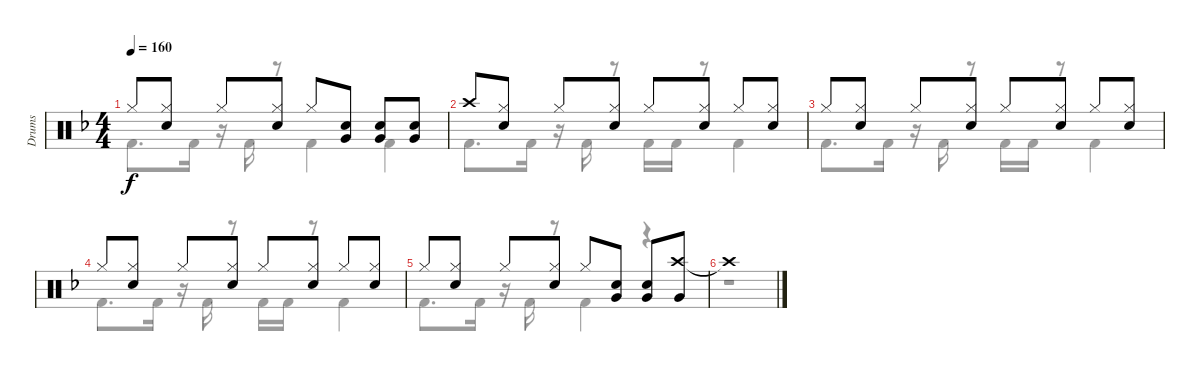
\track ("Drums" "Drums") {instrument percussion}
\staff {score}
\articulation defaults
\voice
\ts (4 4)
\tempo 160
\clef neutral
\ks f "Hi-Hat (closed)".8{dy f}
("Hi-Hat (closed)" "Snare (hit) 2").8 "Hi-Hat (closed)".8 ("Hi-Hat (closed)" "Snare (hit) 2").8 "Hi-Hat (closed)".8 ("Snare (hit) 2" "Very Low Tom (hit)").8 ("Snare (hit) 2" "Very Low Tom (hit)").8 ("Snare (hit) 2" "Very Low Tom (hit)").8 |
"Crash high (hit)".8 ("Hi-Hat (closed)" "Snare (hit) 2").8 "Hi-Hat (closed)".8 ("Hi-Hat (closed)" "Snare (hit) 2").8 "Hi-Hat (closed)".8 ("Hi-Hat (closed)" "Snare (hit) 2").8 "Hi-Hat (closed)".8 ("Hi-Hat (closed)" "Snare (hit) 2").8 |
"Hi-Hat (closed)".8 ("Hi-Hat (closed)" "Snare (hit) 2").8 "Hi-Hat (closed)".8 ("Hi-Hat (closed)" "Snare (hit) 2").8 "Hi-Hat (closed)".8 ("Hi-Hat (closed)" "Snare (hit) 2").8 "Hi-Hat (closed)".8 ("Hi-Hat (closed)" "Snare (hit) 2").8 |
"Hi-Hat (closed)".8 ("Hi-Hat (closed)" "Snare (hit) 2").8 "Hi-Hat (closed)".8 ("Hi-Hat (closed)" "Snare (hit) 2").8 "Hi-Hat (closed)".8 ("Hi-Hat (closed)" "Snare (hit) 2").8 "Hi-Hat (closed)".8 ("Hi-Hat (closed)" "Snare (hit) 2").8 |
"Hi-Hat (closed)".8 ("Hi-Hat (closed)" "Snare (hit) 2").8 "Hi-Hat (closed)".8 ("Hi-Hat (closed)" "Snare (hit) 2").8 "Hi-Hat (closed)".8 ("Snare (hit) 2" "Very Low Tom (hit)").8 ("Snare (hit) 2" "Very Low Tom (hit)").8 ("Crash high (hit)" "Very Low Tom (hit)").8 |
"Crash high (hit)"{t}.1
\voice
\clef neutral
\ottava regular
\simile none
\ks f "Kick (hit) 2".8{d dy f} "Kick (hit) 2".16
r.16 "Kick (hit) 2".16 r.8 "Kick (hit) 2".4 "Kick (hit) 2".4 |
"Kick (hit) 2".8{d} "Kick (hit) 2".16 r.16 "Kick (hit) 2".16 r.8 "Kick (hit) 2".16 "Kick (hit) 2".16 r.8 "Kick (hit) 2".4 |
"Kick (hit) 2".8{d} "Kick (hit) 2".16 r.16 "Kick (hit) 2".16 r.8 "Kick (hit) 2".16 "Kick (hit) 2".16 r.8 "Kick (hit) 2".4 |
"Kick (hit) 2".8{d} "Kick (hit) 2".16 r.16 "Kick (hit) 2".16 r.8 "Kick (hit) 2".16 "Kick (hit) 2".16 r.8 "Kick (hit) 2".4 |
"Kick (hit) 2".8{d} "Kick (hit) 2".16 r.16 "Kick (hit) 2".16 r.8 "Kick (hit) 2".4 r.4 |
r.1
